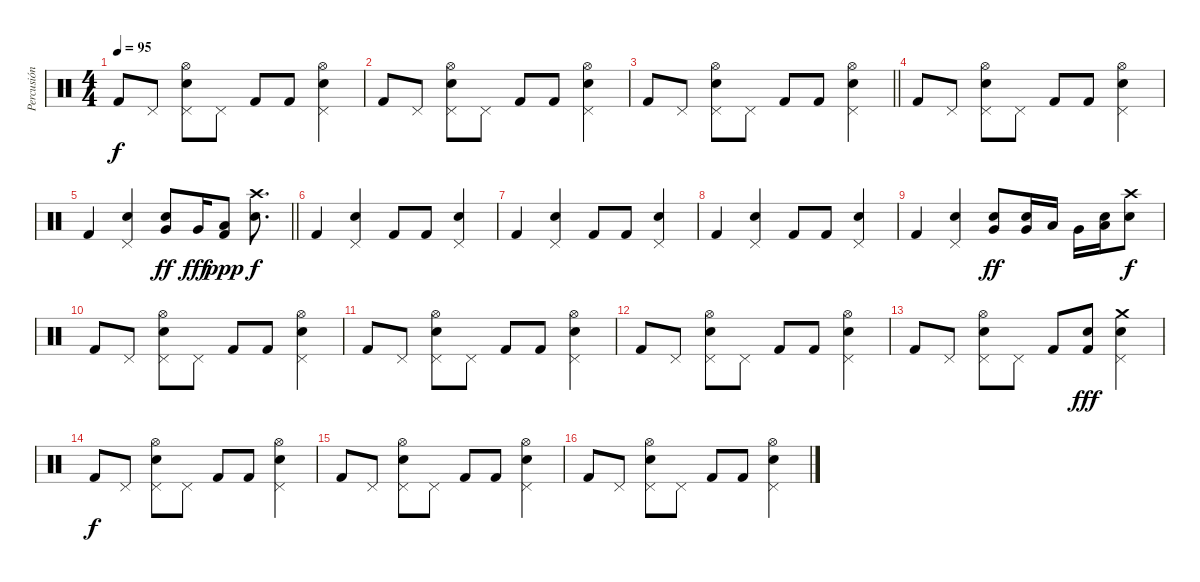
\track ("Percusión" "Percusión") {instrument percussion}
\staff {score}
\articulation defaults
\ts (4 4)
\tempo 95
\clef neutral
\ks c "Kick (hit) 2".8{dy f} "Pedal Hi-Hat (hit)".8
("Snare (hit) 2" "Pedal Hi-Hat (hit)" "Hi-Hat (open)").8 "Pedal Hi-Hat (hit)".8 "Kick (hit) 2".8 "Kick (hit) 2".8 ("Snare (hit) 2" "Pedal Hi-Hat (hit)" "Hi-Hat (open)").4 |
"Kick (hit) 2".8 "Pedal Hi-Hat (hit)".8 ("Snare (hit) 2" "Pedal Hi-Hat (hit)" "Hi-Hat (open)").8 "Pedal Hi-Hat (hit)".8 "Kick (hit) 2".8 "Kick (hit) 2".8 ("Snare (hit) 2" "Pedal Hi-Hat (hit)" "Hi-Hat (open)").4 |
\barLineRight lightlight "Kick (hit) 2".8 "Pedal Hi-Hat (hit)".8
("Snare (hit) 2" "Pedal Hi-Hat (hit)" "Hi-Hat (open)").8 "Pedal Hi-Hat (hit)".8 "Kick (hit) 2".8 "Kick (hit) 2".8 ("Snare (hit) 2" "Pedal Hi-Hat (hit)" "Hi-Hat (open)").4 |
"Kick (hit) 2".8 "Pedal Hi-Hat (hit)".8 ("Snare (hit) 2" "Pedal Hi-Hat (hit)" "Hi-Hat (open)").8 "Pedal Hi-Hat (hit)".8 "Kick (hit) 2".8 "Kick (hit) 2".8 ("Snare (hit) 2" "Pedal Hi-Hat (hit)" "Hi-Hat (open)").4 |
\barLineRight lightlight "Kick (hit) 2".4
("Snare (hit) 2" "Pedal Hi-Hat (hit)").4 ("Very Low Tom (hit)" "Snare (hit) 2").8{dy ff} "Very Low Tom (hit)".16{dy fff} ("Low Tom (hit)" "Kick (hit) 2").8{dy ppp} ("Crash high (hit)" "Snare (hit) 2").8{d dy f} |
\section ("" "")
"Kick (hit) 2".4 ("Snare (hit) 2" "Pedal Hi-Hat (hit)").4 "Kick (hit) 2".8 "Kick (hit) 2".8 ("Snare (hit) 2" "Pedal Hi-Hat (hit)").4 |
"Kick (hit) 2".4 ("Snare (hit) 2" "Pedal Hi-Hat (hit)").4 "Kick (hit) 2".8 "Kick (hit) 2".8 ("Snare (hit) 2" "Pedal Hi-Hat (hit)").4 |
"Kick (hit) 2".4 ("Snare (hit) 2" "Pedal Hi-Hat (hit)").4 "Kick (hit) 2".8 "Kick (hit) 2".8 ("Snare (hit) 2" "Pedal Hi-Hat (hit)").4 |
"Kick (hit) 2".4 ("Snare (hit) 2" "Pedal Hi-Hat (hit)").4 ("Very Low Tom (hit)" "Snare (hit) 2").8{dy ff} ("Very Low Tom (hit)" "Snare (hit) 2").16 "Low Tom (hit)".16 "Very Low Tom (hit)".16 ("Snare (hit) 2" "Low Floor Tom (hit)").16 ("Crash high (hit)" "Snare (hit) 2").8{dy f} |
"Kick (hit) 2".8 "Pedal Hi-Hat (hit)".8 ("Snare (hit) 2" "Pedal Hi-Hat (hit)" "Hi-Hat (open)").8 "Pedal Hi-Hat (hit)".8 "Kick (hit) 2".8 "Kick (hit) 2".8 ("Snare (hit) 2" "Pedal Hi-Hat (hit)" "Hi-Hat (open)").4 |
"Kick (hit) 2".8 "Pedal Hi-Hat (hit)".8 ("Snare (hit) 2" "Pedal Hi-Hat (hit)" "Hi-Hat (open)").8 "Pedal Hi-Hat (hit)".8 "Kick (hit) 2".8 "Kick (hit) 2".8 ("Snare (hit) 2" "Pedal Hi-Hat (hit)" "Hi-Hat (open)").4 |
"Kick (hit) 2".8 "Pedal Hi-Hat (hit)".8 ("Snare (hit) 2" "Pedal Hi-Hat (hit)" "Hi-Hat (open)").8 "Pedal Hi-Hat (hit)".8 "Kick (hit) 2".8 "Kick (hit) 2".8 ("Snare (hit) 2" "Pedal Hi-Hat (hit)" "Hi-Hat (open)").4 |
"Kick (hit) 2".8 "Pedal Hi-Hat (hit)".8 ("Snare (hit) 2" "Pedal Hi-Hat (hit)" "Hi-Hat (open)").8 "Pedal Hi-Hat (hit)".8 "Kick (hit) 2".8 ("Kick (hit) 2" "Snare (hit) 2").8{dy fff} ("Snare (hit) 2" "Pedal Hi-Hat (hit)" "Crash medium (hit)").4 |
"Kick (hit) 2".8{dy f} "Pedal Hi-Hat (hit)".8 ("Snare (hit) 2" "Pedal Hi-Hat (hit)" "Hi-Hat (open)").8 "Pedal Hi-Hat (hit)".8 "Kick (hit) 2".8 "Kick (hit) 2".8 ("Snare (hit) 2" "Pedal Hi-Hat (hit)" "Hi-Hat (open)").4 |
"Kick (hit) 2".8 "Pedal Hi-Hat (hit)".8 ("Snare (hit) 2" "Pedal Hi-Hat (hit)" "Hi-Hat (open)").8 "Pedal Hi-Hat (hit)".8 "Kick (hit) 2".8 "Kick (hit) 2".8 ("Snare (hit) 2" "Pedal Hi-Hat (hit)" "Hi-Hat (open)").4 |
"Kick (hit) 2".8 "Pedal Hi-Hat (hit)".8 ("Snare (hit) 2" "Pedal Hi-Hat (hit)" "Hi-Hat (open)").8 "Pedal Hi-Hat (hit)".8 "Kick (hit) 2".8 "Kick (hit) 2".8 ("Snare (hit) 2" "Pedal Hi-Hat (hit)" "Hi-Hat (open)").4
